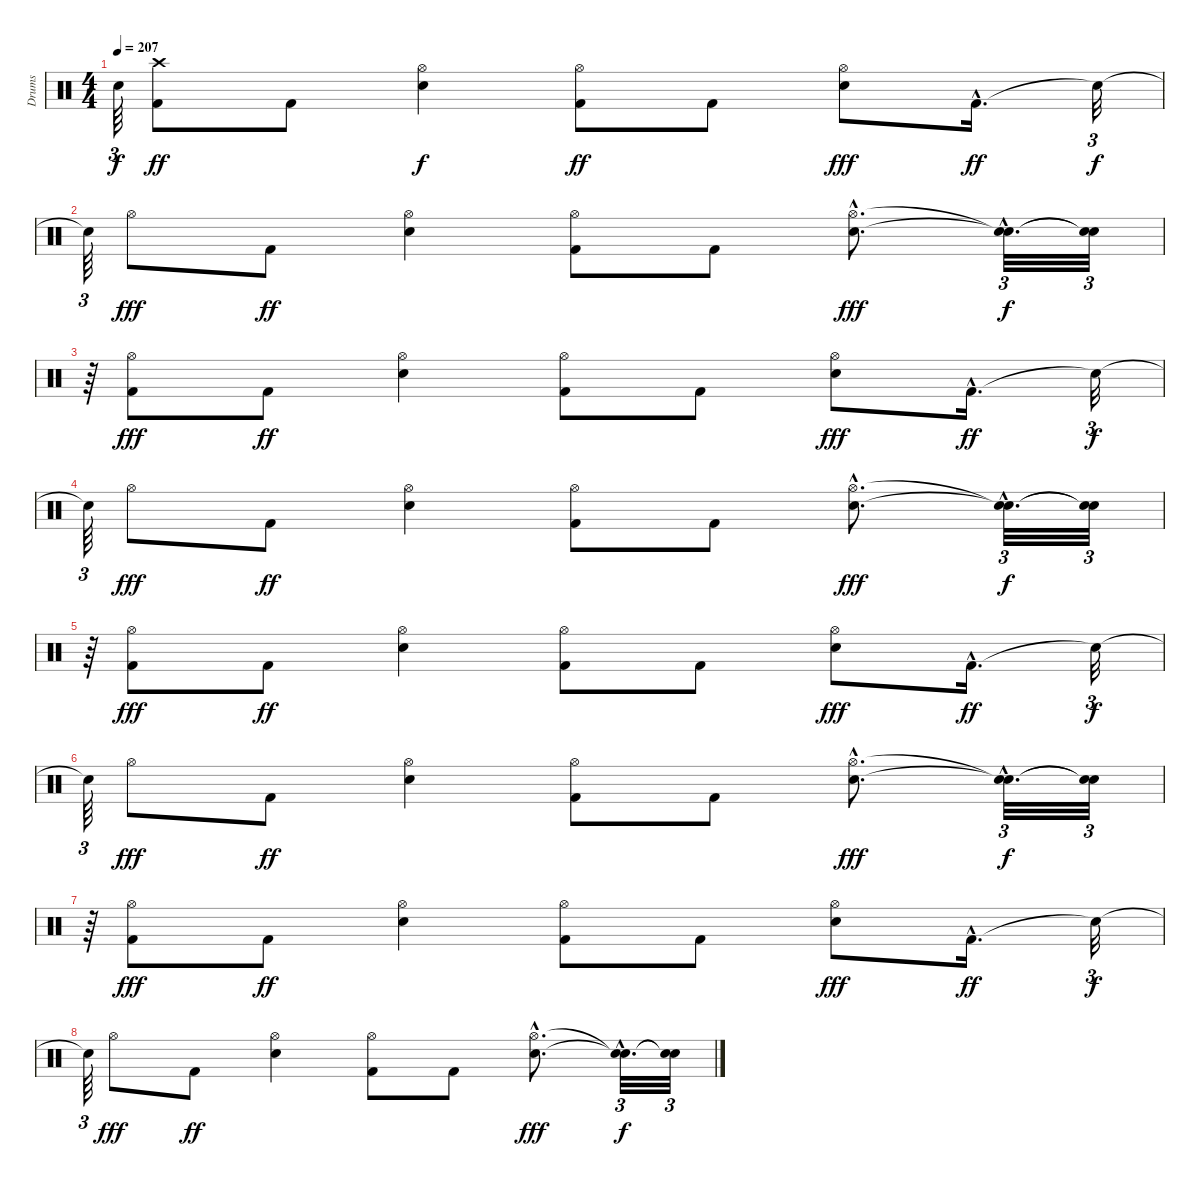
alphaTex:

\track ("Drums" "Drums") {instrument percussion}
\staff {score}
\articulation defaults
\ts (4 4)
\tempo 207
\clef neutral
\ks c "Snare (hit)"{t}.64{tu (3 2) dy f}
("Crash high (hit)" "Kick (hit) 2").8{dy ff} "Kick (hit) 2".8 ("Hi-Hat (open)" "Snare (hit) 2").4{dy f} ("Kick (hit) 2" "Hi-Hat (open)").8{dy ff} "Kick (hit) 2".8 ("Snare (hit) 2" "Hi-Hat (open)").8{dy fff} "Kick (hit) 2"{hac}.16{d dy ff} "Snare (hit)"{t}.32{tu (3 2) dy f} |
"Snare (hit)"{t}.64{tu (3 2)} "Hi-Hat (open)".8{dy fff} "Kick (hit) 2".8{dy ff} ("Snare (hit) 2" "Hi-Hat (open)").4 ("Kick (hit) 2" "Hi-Hat (open)").8 "Kick (hit) 2".8 ("Snare (hit) 2"{hac} "Hi-Hat (open)"{hac}).8{d dy fff} ("Snare (hit)"{hac t} "Snare (hit)"{hac t}).32{d tu (3 2) dy f} ("Snare (hit)"{t} "Snare (hit)"{t}).32{tu (3 2)} |
r.64{tu (3 2)} ("Kick (hit) 2" "Hi-Hat (open)").8{dy fff} "Kick (hit) 2".8{dy ff} ("Snare (hit) 2" "Hi-Hat (open)").4 ("Kick (hit) 2" "Hi-Hat (open)").8 "Kick (hit) 2".8 ("Snare (hit) 2" "Hi-Hat (open)").8{dy fff} "Kick (hit) 2"{hac}.16{d dy ff} "Snare (hit)"{t}.32{tu (3 2) dy f} |
"Snare (hit)"{t}.64{tu (3 2)} "Hi-Hat (open)".8{dy fff} "Kick (hit) 2".8{dy ff} ("Snare (hit) 2" "Hi-Hat (open)").4 ("Kick (hit) 2" "Hi-Hat (open)").8 "Kick (hit) 2".8 ("Snare (hit) 2"{hac} "Hi-Hat (open)"{hac}).8{d dy fff} ("Snare (hit)"{hac t} "Snare (hit)"{hac t}).32{d tu (3 2) dy f} ("Snare (hit)"{t} "Snare (hit)"{t}).32{tu (3 2)} |
r.64{tu (3 2)} ("Kick (hit) 2" "Hi-Hat (open)").8{dy fff} "Kick (hit) 2".8{dy ff} ("Snare (hit) 2" "Hi-Hat (open)").4 ("Kick (hit) 2" "Hi-Hat (open)").8 "Kick (hit) 2".8 ("Snare (hit) 2" "Hi-Hat (open)").8{dy fff} "Kick (hit) 2"{hac}.16{d dy ff} "Snare (hit)"{t}.32{tu (3 2) dy f} |
"Snare (hit)"{t}.64{tu (3 2)} "Hi-Hat (open)".8{dy fff} "Kick (hit) 2".8{dy ff} ("Snare (hit) 2" "Hi-Hat (open)").4 ("Kick (hit) 2" "Hi-Hat (open)").8 "Kick (hit) 2".8 ("Snare (hit) 2"{hac} "Hi-Hat (open)"{hac}).8{d dy fff} ("Snare (hit)"{hac t} "Snare (hit)"{hac t}).32{d tu (3 2) dy f} ("Snare (hit)"{t} "Snare (hit)"{t}).32{tu (3 2)} |
r.64{tu (3 2)} ("Kick (hit) 2" "Hi-Hat (open)").8{dy fff} "Kick (hit) 2".8{dy ff} ("Snare (hit) 2" "Hi-Hat (open)").4 ("Kick (hit) 2" "Hi-Hat (open)").8 "Kick (hit) 2".8 ("Snare (hit) 2" "Hi-Hat (open)").8{dy fff} "Kick (hit) 2"{hac}.16{d dy ff} "Snare (hit)"{t}.32{tu (3 2) dy f} |
"Snare (hit)"{t}.64{tu (3 2)} "Hi-Hat (open)".8{dy fff} "Kick (hit) 2".8{dy ff} ("Snare (hit) 2" "Hi-Hat (open)").4 ("Kick (hit) 2" "Hi-Hat (open)").8 "Kick (hit) 2".8 ("Snare (hit) 2"{hac} "Hi-Hat (open)"{hac}).8{d dy fff} ("Snare (hit)"{hac t} "Snare (hit)"{hac t}).32{d tu (3 2) dy f} ("Snare (hit)"{t} "Snare (hit)"{t}).32{tu (3 2)}
